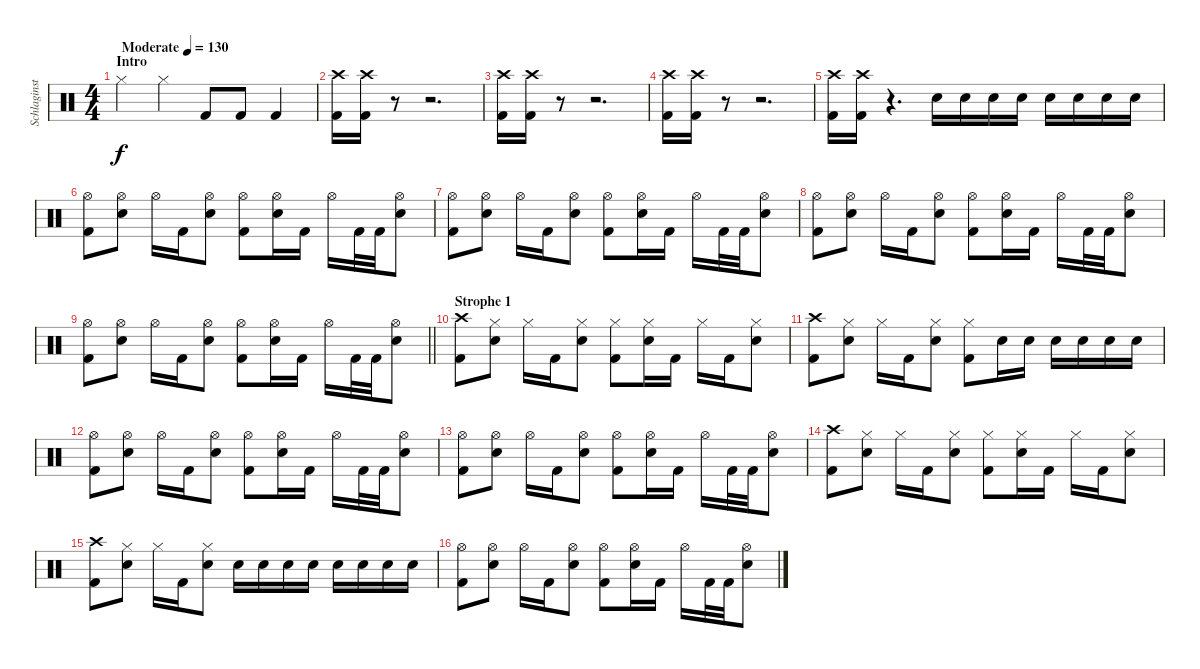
\track ("Schlaginstrumente - Auswahl" "Schlaginst") {instrument percussion}
\staff {score}
\articulation defaults
\ts (4 4)
\section ("" "Intro")
\tempo (130 "Moderate")
\clef neutral
\ks c "Hi-Hat (closed)".4{dy f} "Hi-Hat (closed)".4 "Kick (hit) 2".8 "Kick (hit) 2".8 "Kick (hit) 2".4
|
("Crash high (hit)" "Kick (hit) 2").16 ("Crash high (hit)" "Kick (hit) 2").16 r.8 r.2{d} |
("Crash high (hit)" "Kick (hit) 2").16 ("Crash high (hit)" "Kick (hit) 2").16 r.8 r.2{d} |
("Crash high (hit)" "Kick (hit) 2").16 ("Crash high (hit)" "Kick (hit) 2").16 r.8 r.2{d} |
("Crash high (hit)" "Kick (hit) 2").16 ("Crash high (hit)" "Kick (hit) 2").16 r.4{d} "Snare (hit) 2".16 "Snare (hit) 2".16 "Snare (hit) 2".16 "Snare (hit) 2".16 "Snare (hit) 2".16 "Snare (hit) 2".16 "Snare (hit) 2".16 "Snare (hit) 2".16 |
("Hi-Hat (open)" "Kick (hit) 2").8 ("Hi-Hat (open)" "Snare (hit) 2").8 "Hi-Hat (open)".16 "Kick (hit) 2".16 ("Hi-Hat (open)" "Snare (hit) 2").8 ("Hi-Hat (open)" "Kick (hit) 2").8 ("Hi-Hat (open)" "Snare (hit) 2").16 "Kick (hit) 2".16 "Hi-Hat (open)".16 "Kick (hit) 2".32 "Kick (hit) 2".32 ("Hi-Hat (open)" "Snare (hit) 2").8 |
("Hi-Hat (open)" "Kick (hit) 2").8 ("Hi-Hat (open)" "Snare (hit) 2").8 "Hi-Hat (open)".16 "Kick (hit) 2".16 ("Hi-Hat (open)" "Snare (hit) 2").8 ("Hi-Hat (open)" "Kick (hit) 2").8 ("Hi-Hat (open)" "Snare (hit) 2").16 "Kick (hit) 2".16 "Hi-Hat (open)".16 "Kick (hit) 2".32 "Kick (hit) 2".32 ("Hi-Hat (open)" "Snare (hit) 2").8 |
("Hi-Hat (open)" "Kick (hit) 2").8 ("Hi-Hat (open)" "Snare (hit) 2").8 "Hi-Hat (open)".16 "Kick (hit) 2".16 ("Hi-Hat (open)" "Snare (hit) 2").8 ("Hi-Hat (open)" "Kick (hit) 2").8 ("Hi-Hat (open)" "Snare (hit) 2").16 "Kick (hit) 2".16 "Hi-Hat (open)".16 "Kick (hit) 2".32 "Kick (hit) 2".32 ("Hi-Hat (open)" "Snare (hit) 2").8 |
\barLineRight lightlight
("Hi-Hat (open)" "Kick (hit) 2").8 ("Hi-Hat (open)" "Snare (hit) 2").8 "Hi-Hat (open)".16 "Kick (hit) 2".16 ("Hi-Hat (open)" "Snare (hit) 2").8 ("Hi-Hat (open)" "Kick (hit) 2").8 ("Hi-Hat (open)" "Snare (hit) 2").16 "Kick (hit) 2".16 "Hi-Hat (open)".16 "Kick (hit) 2".32 "Kick (hit) 2".32 ("Hi-Hat (open)" "Snare (hit) 2").8 |
\section ("" "Strophe 1")
("Crash high (hit)" "Kick (hit) 2").8 ("Hi-Hat (closed)" "Snare (hit) 2").8 "Hi-Hat (closed)".16 "Kick (hit) 2".16 ("Hi-Hat (closed)" "Snare (hit) 2").8 ("Hi-Hat (closed)" "Kick (hit) 2").8 ("Hi-Hat (closed)" "Snare (hit) 2").16 "Kick (hit) 2".16 "Hi-Hat (closed)".16 "Kick (hit) 2".16 ("Hi-Hat (closed)" "Snare (hit) 2").8 |
("Crash high (hit)" "Kick (hit) 2").8 ("Hi-Hat (closed)" "Snare (hit) 2").8 "Hi-Hat (closed)".16 "Kick (hit) 2".16 ("Hi-Hat (closed)" "Snare (hit) 2").8 ("Hi-Hat (closed)" "Kick (hit) 2").8 "Snare (hit) 2".16 "Snare (hit) 2".16 "Snare (hit) 2".16 "Snare (hit) 2".16 "Snare (hit) 2".16 "Snare (hit) 2".16 |
("Hi-Hat (open)" "Kick (hit) 2").8 ("Hi-Hat (open)" "Snare (hit) 2").8 "Hi-Hat (open)".16 "Kick (hit) 2".16 ("Hi-Hat (open)" "Snare (hit) 2").8 ("Hi-Hat (open)" "Kick (hit) 2").8 ("Hi-Hat (open)" "Snare (hit) 2").16 "Kick (hit) 2".16 "Hi-Hat (open)".16 "Kick (hit) 2".32 "Kick (hit) 2".32 ("Hi-Hat (open)" "Snare (hit) 2").8 |
("Hi-Hat (open)" "Kick (hit) 2").8 ("Hi-Hat (open)" "Snare (hit) 2").8 "Hi-Hat (open)".16 "Kick (hit) 2".16 ("Hi-Hat (open)" "Snare (hit) 2").8 ("Hi-Hat (open)" "Kick (hit) 2").8 ("Hi-Hat (open)" "Snare (hit) 2").16 "Kick (hit) 2".16 "Hi-Hat (open)".16 "Kick (hit) 2".32 "Kick (hit) 2".32 ("Hi-Hat (open)" "Snare (hit) 2").8 |
("Crash high (hit)" "Kick (hit) 2").8 ("Hi-Hat (closed)" "Snare (hit) 2").8 "Hi-Hat (closed)".16 "Kick (hit) 2".16 ("Hi-Hat (closed)" "Snare (hit) 2").8 ("Hi-Hat (closed)" "Kick (hit) 2").8 ("Hi-Hat (closed)" "Snare (hit) 2").16 "Kick (hit) 2".16 "Hi-Hat (closed)".16 "Kick (hit) 2".16 ("Hi-Hat (closed)" "Snare (hit) 2").8 |
("Crash high (hit)" "Kick (hit) 2").8 ("Hi-Hat (closed)" "Snare (hit) 2").8 "Hi-Hat (closed)".16 "Kick (hit) 2".16 ("Hi-Hat (closed)" "Snare (hit) 2").8 "Snare (hit) 2".16 "Snare (hit) 2".16 "Snare (hit) 2".16 "Snare (hit) 2".16 "Snare (hit) 2".16 "Snare (hit) 2".16 "Snare (hit) 2".16 "Snare (hit) 2".16 |
("Hi-Hat (open)" "Kick (hit) 2").8 ("Hi-Hat (open)" "Snare (hit) 2").8 "Hi-Hat (open)".16 "Kick (hit) 2".16 ("Hi-Hat (open)" "Snare (hit) 2").8 ("Hi-Hat (open)" "Kick (hit) 2").8 ("Hi-Hat (open)" "Snare (hit) 2").16 "Kick (hit) 2".16 "Hi-Hat (open)".16 "Kick (hit) 2".32 "Kick (hit) 2".32 ("Hi-Hat (open)" "Snare (hit) 2").8
